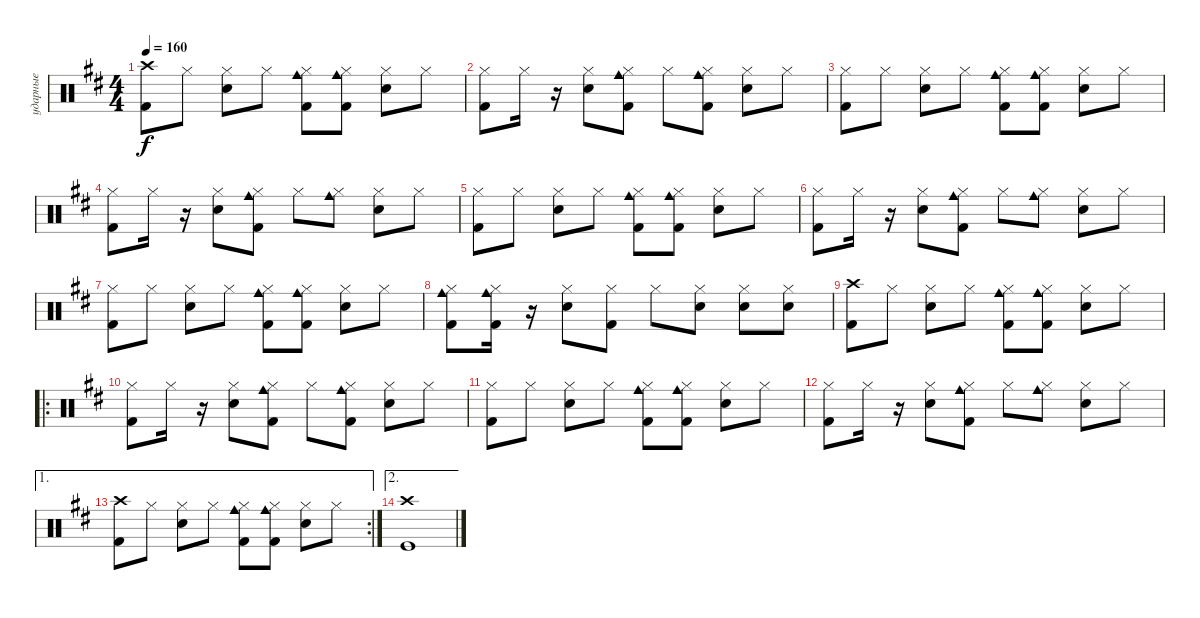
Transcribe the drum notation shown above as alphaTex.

\track ("ударные" "ударные") {instrument percussion}
\staff {score}
\articulation defaults
\ts (4 4)
\tempo 160
\clef neutral
\ks bminor
("Crash high (hit)" "Kick (hit) 2").8{dy f} "Hi-Hat (closed)".8 ("Hi-Hat (closed)" "Snare (hit) 2").8 "Hi-Hat (closed)".8 ("Hi-Hat (closed)" "Cowbell medium (hit)" "Kick (hit) 2").8 ("Hi-Hat (closed)" "Cowbell medium (hit)" "Kick (hit) 2").8 ("Hi-Hat (closed)" "Snare (hit) 2").8 "Hi-Hat (closed)".8 |
("Hi-Hat (closed)" "Kick (hit) 2").8 "Hi-Hat (closed)".16 r.16 ("Hi-Hat (closed)" "Snare (hit) 2").8 ("Hi-Hat (closed)" "Kick (hit) 2" "Cowbell medium (hit)").8 "Hi-Hat (closed)".8 ("Hi-Hat (closed)" "Kick (hit) 2" "Cowbell medium (hit)").8 ("Hi-Hat (closed)" "Snare (hit) 2").8 "Hi-Hat (closed)".8 |
("Hi-Hat (closed)" "Kick (hit) 2").8 "Hi-Hat (closed)".8 ("Hi-Hat (closed)" "Snare (hit) 2").8 "Hi-Hat (closed)".8 ("Hi-Hat (closed)" "Cowbell medium (hit)" "Kick (hit) 2").8 ("Hi-Hat (closed)" "Cowbell medium (hit)" "Kick (hit) 2").8 ("Hi-Hat (closed)" "Snare (hit) 2").8 "Hi-Hat (closed)".8 |
("Hi-Hat (closed)" "Kick (hit) 2").8 "Hi-Hat (closed)".16 r.16 ("Hi-Hat (closed)" "Snare (hit) 2").8 ("Hi-Hat (closed)" "Kick (hit) 2" "Cowbell medium (hit)").8 "Hi-Hat (closed)".8 ("Hi-Hat (closed)" "Cowbell medium (hit)").8 ("Hi-Hat (closed)" "Snare (hit) 2").8 "Hi-Hat (closed)".8 |
("Hi-Hat (closed)" "Kick (hit) 2").8 "Hi-Hat (closed)".8 ("Hi-Hat (closed)" "Snare (hit) 2").8 "Hi-Hat (closed)".8 ("Hi-Hat (closed)" "Cowbell medium (hit)" "Kick (hit) 2").8 ("Hi-Hat (closed)" "Cowbell medium (hit)" "Kick (hit) 2").8 ("Hi-Hat (closed)" "Snare (hit) 2").8 "Hi-Hat (closed)".8 |
("Hi-Hat (closed)" "Kick (hit) 2").8 "Hi-Hat (closed)".16 r.16 ("Hi-Hat (closed)" "Snare (hit) 2").8 ("Hi-Hat (closed)" "Kick (hit) 2" "Cowbell medium (hit)").8 "Hi-Hat (closed)".8 ("Hi-Hat (closed)" "Cowbell medium (hit)").8 ("Hi-Hat (closed)" "Snare (hit) 2").8 "Hi-Hat (closed)".8 |
("Hi-Hat (closed)" "Kick (hit) 2").8 "Hi-Hat (closed)".8 ("Hi-Hat (closed)" "Snare (hit) 2").8 "Hi-Hat (closed)".8 ("Hi-Hat (closed)" "Cowbell medium (hit)" "Kick (hit) 2").8 ("Hi-Hat (closed)" "Cowbell medium (hit)" "Kick (hit) 2").8 ("Hi-Hat (closed)" "Snare (hit) 2").8 "Hi-Hat (closed)".8 |
("Cowbell medium (hit)" "Hi-Hat (closed)" "Kick (hit) 2").8 ("Cowbell medium (hit)" "Kick (hit) 2" "Hi-Hat (closed)").16 r.16 ("Hi-Hat (closed)" "Snare (hit) 2").8 ("Hi-Hat (closed)" "Kick (hit) 2").8 "Hi-Hat (closed)".8 ("Hi-Hat (closed)" "Snare (hit) 2").8 ("Hi-Hat (closed)" "Snare (hit) 2").8 ("Snare (hit) 2" "Hi-Hat (closed)").8 |
("Crash high (hit)" "Kick (hit) 2").8 "Hi-Hat (closed)".8 ("Hi-Hat (closed)" "Snare (hit) 2").8 "Hi-Hat (closed)".8 ("Hi-Hat (closed)" "Cowbell medium (hit)" "Kick (hit) 2").8 ("Hi-Hat (closed)" "Cowbell medium (hit)" "Kick (hit) 2").8 ("Hi-Hat (closed)" "Snare (hit) 2").8 "Hi-Hat (closed)".8 |
\ro
("Hi-Hat (closed)" "Kick (hit) 2").8 "Hi-Hat (closed)".16 r.16 ("Hi-Hat (closed)" "Snare (hit) 2").8 ("Hi-Hat (closed)" "Kick (hit) 2" "Cowbell medium (hit)").8 "Hi-Hat (closed)".8 ("Hi-Hat (closed)" "Kick (hit) 2" "Cowbell medium (hit)").8 ("Hi-Hat (closed)" "Snare (hit) 2").8 "Hi-Hat (closed)".8 |
("Hi-Hat (closed)" "Kick (hit) 2").8 "Hi-Hat (closed)".8 ("Hi-Hat (closed)" "Snare (hit) 2").8 "Hi-Hat (closed)".8 ("Hi-Hat (closed)" "Cowbell medium (hit)" "Kick (hit) 2").8 ("Hi-Hat (closed)" "Cowbell medium (hit)" "Kick (hit) 2").8 ("Hi-Hat (closed)" "Snare (hit) 2").8 "Hi-Hat (closed)".8 |
("Hi-Hat (closed)" "Kick (hit) 2").8 "Hi-Hat (closed)".16 r.16 ("Hi-Hat (closed)" "Snare (hit) 2").8 ("Hi-Hat (closed)" "Kick (hit) 2" "Cowbell medium (hit)").8 "Hi-Hat (closed)".8 ("Hi-Hat (closed)" "Cowbell medium (hit)").8 ("Hi-Hat (closed)" "Snare (hit) 2").8 "Hi-Hat (closed)".8 |
\ae 1
\rc 2
("Crash high (hit)" "Kick (hit) 2").8 "Hi-Hat (closed)".8 ("Hi-Hat (closed)" "Snare (hit) 2").8 "Hi-Hat (closed)".8 ("Hi-Hat (closed)" "Cowbell medium (hit)" "Kick (hit) 2").8 ("Hi-Hat (closed)" "Cowbell medium (hit)" "Kick (hit) 2").8 ("Hi-Hat (closed)" "Snare (hit) 2").8 "Hi-Hat (closed)".8 |
\ae 2
("Kick (hit)" "Crash high (hit)").1
